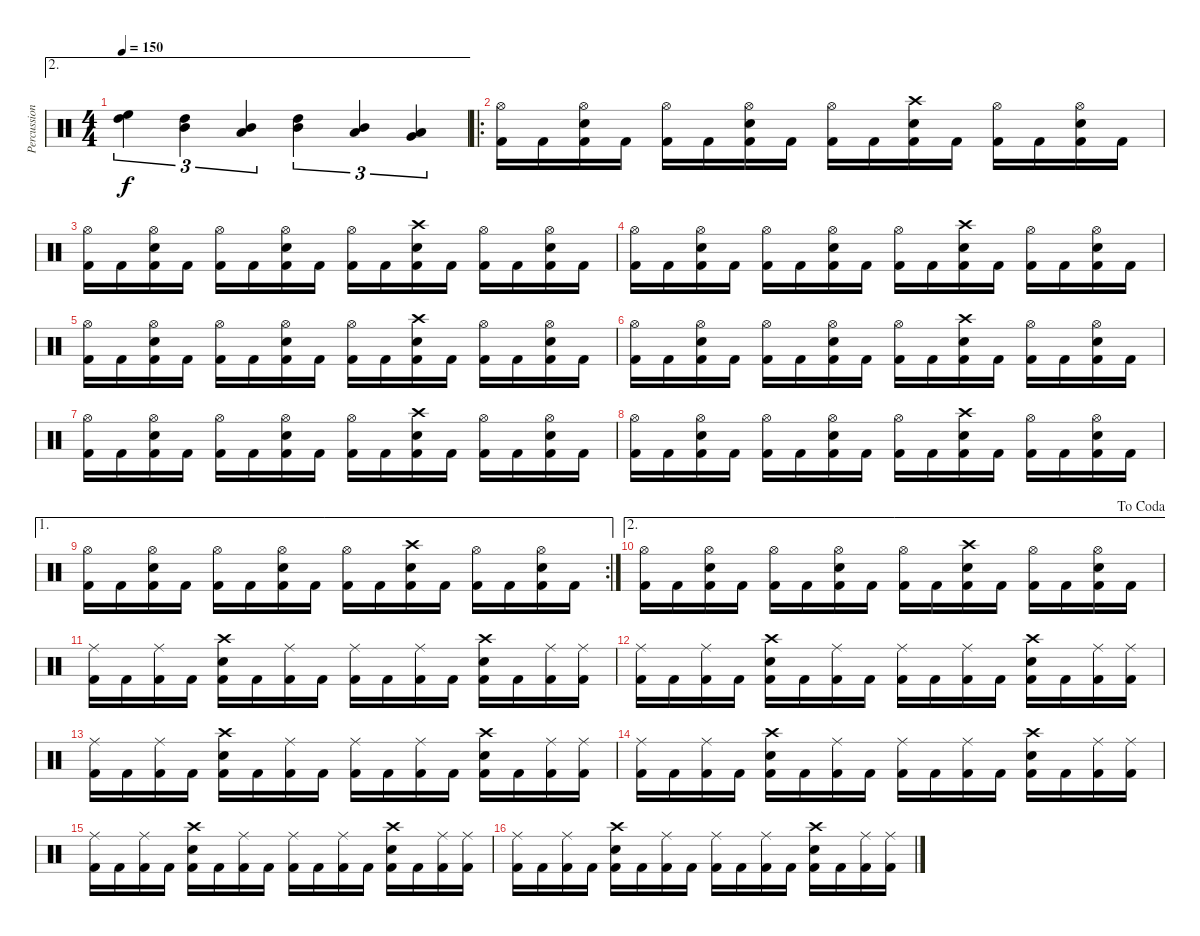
\track ("Percussion" "Percussion") {instrument percussion}
\staff {score}
\articulation defaults
\ae 2
\ts (4 4)
\tempo 150
\clef neutral
\ks c
("High Floor Tom (hit)" "High Tom (hit)").4{tu (3 2) dy f} ("High Tom (hit)" "Mid Tom (hit)").4{tu (3 2)} ("Mid Tom (hit)" "Low Tom (hit)").4{tu (3 2)} ("High Tom (hit)" "Mid Tom (hit)").4{tu (3 2)} ("Mid Tom (hit)" "Low Tom (hit)").4{tu (3 2)} ("Low Tom (hit)" "Very Low Tom (hit)").4{tu (3 2)} |
\ro
("Hi-Hat (open)" "Kick (hit) 2").16 "Kick (hit) 2".16 ("Hi-Hat (open)" "Electric Snare (hit)" "Kick (hit) 2").16 "Kick (hit) 2".16 ("Hi-Hat (open)" "Kick (hit) 2").16 "Kick (hit) 2".16 ("Hi-Hat (open)" "Electric Snare (hit)" "Kick (hit) 2").16 "Kick (hit) 2".16 ("Hi-Hat (open)" "Kick (hit) 2").16 "Kick (hit) 2".16 ("Crash high (hit)" "Electric Snare (hit)" "Kick (hit) 2").16 "Kick (hit) 2".16 ("Hi-Hat (open)" "Kick (hit) 2").16 "Kick (hit) 2".16 ("Hi-Hat (open)" "Electric Snare (hit)" "Kick (hit) 2").16 "Kick (hit) 2".16 |
("Hi-Hat (open)" "Kick (hit) 2").16 "Kick (hit) 2".16 ("Hi-Hat (open)" "Electric Snare (hit)" "Kick (hit) 2").16 "Kick (hit) 2".16 ("Hi-Hat (open)" "Kick (hit) 2").16 "Kick (hit) 2".16 ("Hi-Hat (open)" "Electric Snare (hit)" "Kick (hit) 2").16 "Kick (hit) 2".16 ("Hi-Hat (open)" "Kick (hit) 2").16 "Kick (hit) 2".16 ("Crash high (hit)" "Electric Snare (hit)" "Kick (hit) 2").16 "Kick (hit) 2".16 ("Hi-Hat (open)" "Kick (hit) 2").16 "Kick (hit) 2".16 ("Hi-Hat (open)" "Electric Snare (hit)" "Kick (hit) 2").16 "Kick (hit) 2".16 |
("Hi-Hat (open)" "Kick (hit) 2").16 "Kick (hit) 2".16 ("Hi-Hat (open)" "Electric Snare (hit)" "Kick (hit) 2").16 "Kick (hit) 2".16 ("Hi-Hat (open)" "Kick (hit) 2").16 "Kick (hit) 2".16 ("Hi-Hat (open)" "Electric Snare (hit)" "Kick (hit) 2").16 "Kick (hit) 2".16 ("Hi-Hat (open)" "Kick (hit) 2").16 "Kick (hit) 2".16 ("Crash high (hit)" "Electric Snare (hit)" "Kick (hit) 2").16 "Kick (hit) 2".16 ("Hi-Hat (open)" "Kick (hit) 2").16 "Kick (hit) 2".16 ("Hi-Hat (open)" "Electric Snare (hit)" "Kick (hit) 2").16 "Kick (hit) 2".16 |
("Hi-Hat (open)" "Kick (hit) 2").16 "Kick (hit) 2".16 ("Hi-Hat (open)" "Electric Snare (hit)" "Kick (hit) 2").16 "Kick (hit) 2".16 ("Hi-Hat (open)" "Kick (hit) 2").16 "Kick (hit) 2".16 ("Hi-Hat (open)" "Electric Snare (hit)" "Kick (hit) 2").16 "Kick (hit) 2".16 ("Hi-Hat (open)" "Kick (hit) 2").16 "Kick (hit) 2".16 ("Crash high (hit)" "Electric Snare (hit)" "Kick (hit) 2").16 "Kick (hit) 2".16 ("Hi-Hat (open)" "Kick (hit) 2").16 "Kick (hit) 2".16 ("Hi-Hat (open)" "Electric Snare (hit)" "Kick (hit) 2").16 "Kick (hit) 2".16 |
("Hi-Hat (open)" "Kick (hit) 2").16 "Kick (hit) 2".16 ("Hi-Hat (open)" "Electric Snare (hit)" "Kick (hit) 2").16 "Kick (hit) 2".16 ("Hi-Hat (open)" "Kick (hit) 2").16 "Kick (hit) 2".16 ("Hi-Hat (open)" "Electric Snare (hit)" "Kick (hit) 2").16 "Kick (hit) 2".16 ("Hi-Hat (open)" "Kick (hit) 2").16 "Kick (hit) 2".16 ("Crash high (hit)" "Electric Snare (hit)" "Kick (hit) 2").16 "Kick (hit) 2".16 ("Hi-Hat (open)" "Kick (hit) 2").16 "Kick (hit) 2".16 ("Hi-Hat (open)" "Electric Snare (hit)" "Kick (hit) 2").16 "Kick (hit) 2".16 |
("Hi-Hat (open)" "Kick (hit) 2").16 "Kick (hit) 2".16 ("Hi-Hat (open)" "Electric Snare (hit)" "Kick (hit) 2").16 "Kick (hit) 2".16 ("Hi-Hat (open)" "Kick (hit) 2").16 "Kick (hit) 2".16 ("Hi-Hat (open)" "Electric Snare (hit)" "Kick (hit) 2").16 "Kick (hit) 2".16 ("Hi-Hat (open)" "Kick (hit) 2").16 "Kick (hit) 2".16 ("Crash high (hit)" "Electric Snare (hit)" "Kick (hit) 2").16 "Kick (hit) 2".16 ("Hi-Hat (open)" "Kick (hit) 2").16 "Kick (hit) 2".16 ("Hi-Hat (open)" "Electric Snare (hit)" "Kick (hit) 2").16 "Kick (hit) 2".16 |
("Hi-Hat (open)" "Kick (hit) 2").16 "Kick (hit) 2".16 ("Hi-Hat (open)" "Electric Snare (hit)" "Kick (hit) 2").16 "Kick (hit) 2".16 ("Hi-Hat (open)" "Kick (hit) 2").16 "Kick (hit) 2".16 ("Hi-Hat (open)" "Electric Snare (hit)" "Kick (hit) 2").16 "Kick (hit) 2".16 ("Hi-Hat (open)" "Kick (hit) 2").16 "Kick (hit) 2".16 ("Crash high (hit)" "Electric Snare (hit)" "Kick (hit) 2").16 "Kick (hit) 2".16 ("Hi-Hat (open)" "Kick (hit) 2").16 "Kick (hit) 2".16 ("Hi-Hat (open)" "Electric Snare (hit)" "Kick (hit) 2").16 "Kick (hit) 2".16 |
\ae 1
\rc 2
("Hi-Hat (open)" "Kick (hit) 2").16 "Kick (hit) 2".16 ("Hi-Hat (open)" "Electric Snare (hit)" "Kick (hit) 2").16 "Kick (hit) 2".16 ("Hi-Hat (open)" "Kick (hit) 2").16 "Kick (hit) 2".16 ("Hi-Hat (open)" "Electric Snare (hit)" "Kick (hit) 2").16 "Kick (hit) 2".16 ("Hi-Hat (open)" "Kick (hit) 2").16 "Kick (hit) 2".16 ("Crash high (hit)" "Electric Snare (hit)" "Kick (hit) 2").16 "Kick (hit) 2".16 ("Hi-Hat (open)" "Kick (hit) 2").16 "Kick (hit) 2".16 ("Hi-Hat (open)" "Electric Snare (hit)" "Kick (hit) 2").16 "Kick (hit) 2".16 |
\ae 2
\jump dacoda
("Hi-Hat (open)" "Kick (hit) 2").16 "Kick (hit) 2".16 ("Hi-Hat (open)" "Electric Snare (hit)" "Kick (hit) 2").16 "Kick (hit) 2".16 ("Hi-Hat (open)" "Kick (hit) 2").16 "Kick (hit) 2".16 ("Hi-Hat (open)" "Electric Snare (hit)" "Kick (hit) 2").16 "Kick (hit) 2".16 ("Hi-Hat (open)" "Kick (hit) 2").16 "Kick (hit) 2".16 ("Crash high (hit)" "Electric Snare (hit)" "Kick (hit) 2").16 "Kick (hit) 2".16 ("Hi-Hat (open)" "Kick (hit) 2").16 "Kick (hit) 2".16 ("Hi-Hat (open)" "Electric Snare (hit)" "Kick (hit) 2").16 "Kick (hit) 2".16 |
("Ride (middle)" "Kick (hit) 2").16 "Kick (hit) 2".16 ("Ride (middle)" "Kick (hit) 2").16 "Kick (hit) 2".16 ("Crash high (hit)" "Electric Snare (hit)" "Kick (hit) 2").16 "Kick (hit) 2".16 ("Ride (middle)" "Kick (hit) 2").16 "Kick (hit) 2".16 ("Ride (middle)" "Kick (hit) 2").16 "Kick (hit) 2".16 ("Ride (middle)" "Kick (hit) 2").16 "Kick (hit) 2".16 ("Crash high (hit)" "Electric Snare (hit)" "Kick (hit) 2").16 "Kick (hit) 2".16 ("Ride (middle)" "Kick (hit) 2").16 ("Ride (middle)" "Kick (hit) 2").16 |
("Ride (middle)" "Kick (hit) 2").16 "Kick (hit) 2".16 ("Ride (middle)" "Kick (hit) 2").16 "Kick (hit) 2".16 ("Crash high (hit)" "Electric Snare (hit)" "Kick (hit) 2").16 "Kick (hit) 2".16 ("Ride (middle)" "Kick (hit) 2").16 "Kick (hit) 2".16 ("Ride (middle)" "Kick (hit) 2").16 "Kick (hit) 2".16 ("Ride (middle)" "Kick (hit) 2").16 "Kick (hit) 2".16 ("Crash high (hit)" "Electric Snare (hit)" "Kick (hit) 2").16 "Kick (hit) 2".16 ("Ride (middle)" "Kick (hit) 2").16 ("Ride (middle)" "Kick (hit) 2").16 |
("Ride (middle)" "Kick (hit) 2").16 "Kick (hit) 2".16 ("Ride (middle)" "Kick (hit) 2").16 "Kick (hit) 2".16 ("Crash high (hit)" "Electric Snare (hit)" "Kick (hit) 2").16 "Kick (hit) 2".16 ("Ride (middle)" "Kick (hit) 2").16 "Kick (hit) 2".16 ("Ride (middle)" "Kick (hit) 2").16 "Kick (hit) 2".16 ("Ride (middle)" "Kick (hit) 2").16 "Kick (hit) 2".16 ("Crash high (hit)" "Electric Snare (hit)" "Kick (hit) 2").16 "Kick (hit) 2".16 ("Ride (middle)" "Kick (hit) 2").16 ("Ride (middle)" "Kick (hit) 2").16 |
("Ride (middle)" "Kick (hit) 2").16 "Kick (hit) 2".16 ("Ride (middle)" "Kick (hit) 2").16 "Kick (hit) 2".16 ("Crash high (hit)" "Electric Snare (hit)" "Kick (hit) 2").16 "Kick (hit) 2".16 ("Ride (middle)" "Kick (hit) 2").16 "Kick (hit) 2".16 ("Ride (middle)" "Kick (hit) 2").16 "Kick (hit) 2".16 ("Ride (middle)" "Kick (hit) 2").16 "Kick (hit) 2".16 ("Crash high (hit)" "Electric Snare (hit)" "Kick (hit) 2").16 "Kick (hit) 2".16 ("Ride (middle)" "Kick (hit) 2").16 ("Ride (middle)" "Kick (hit) 2").16 |
("Ride (middle)" "Kick (hit) 2").16 "Kick (hit) 2".16 ("Ride (middle)" "Kick (hit) 2").16 "Kick (hit) 2".16 ("Crash high (hit)" "Electric Snare (hit)" "Kick (hit) 2").16 "Kick (hit) 2".16 ("Ride (middle)" "Kick (hit) 2").16 "Kick (hit) 2".16 ("Ride (middle)" "Kick (hit) 2").16 "Kick (hit) 2".16 ("Ride (middle)" "Kick (hit) 2").16 "Kick (hit) 2".16 ("Crash high (hit)" "Electric Snare (hit)" "Kick (hit) 2").16 "Kick (hit) 2".16 ("Ride (middle)" "Kick (hit) 2").16 ("Ride (middle)" "Kick (hit) 2").16 |
("Ride (middle)" "Kick (hit) 2").16 "Kick (hit) 2".16 ("Ride (middle)" "Kick (hit) 2").16 "Kick (hit) 2".16 ("Crash high (hit)" "Electric Snare (hit)" "Kick (hit) 2").16 "Kick (hit) 2".16 ("Ride (middle)" "Kick (hit) 2").16 "Kick (hit) 2".16 ("Ride (middle)" "Kick (hit) 2").16 "Kick (hit) 2".16 ("Ride (middle)" "Kick (hit) 2").16 "Kick (hit) 2".16 ("Crash high (hit)" "Electric Snare (hit)" "Kick (hit) 2").16 "Kick (hit) 2".16 ("Ride (middle)" "Kick (hit) 2").16 ("Ride (middle)" "Kick (hit) 2").16
